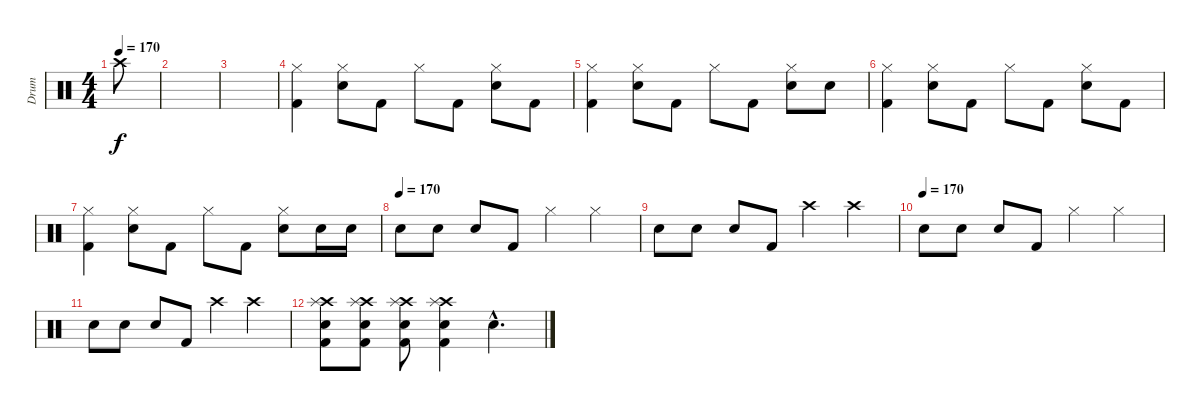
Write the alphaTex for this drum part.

\track ("Drum" "Drum") {instrument percussion}
\staff {score}
\articulation defaults
\ts (4 4)
\tempo 170
\clef neutral
\ks c "Crash high (hit)".8{dy f}
|
|
|
("Hi-Hat (closed)" "Kick (hit) 2").4 ("Hi-Hat (closed)" "Electric Snare (hit)").8 "Kick (hit) 2".8 "Hi-Hat (closed)".8 "Kick (hit) 2".8 ("Hi-Hat (closed)" "Electric Snare (hit)").8 "Kick (hit) 2".8 |
("Hi-Hat (closed)" "Kick (hit) 2").4 ("Hi-Hat (closed)" "Electric Snare (hit)").8 "Kick (hit) 2".8 "Hi-Hat (closed)".8 "Kick (hit) 2".8 ("Hi-Hat (closed)" "Electric Snare (hit)").8 "Electric Snare (hit)".8 |
("Hi-Hat (closed)" "Kick (hit) 2").4 ("Hi-Hat (closed)" "Electric Snare (hit)").8 "Kick (hit) 2".8 "Hi-Hat (closed)".8 "Kick (hit) 2".8 ("Hi-Hat (closed)" "Electric Snare (hit)").8 "Kick (hit) 2".8 |
("Hi-Hat (closed)" "Kick (hit) 2").4 ("Hi-Hat (closed)" "Electric Snare (hit)").8 "Kick (hit) 2".8 "Hi-Hat (closed)".8 "Kick (hit) 2".8 ("Hi-Hat (closed)" "Electric Snare (hit)").8 "Electric Snare (hit)".16 "Electric Snare (hit)".16 |
\tempo (170)
"Electric Snare (hit)".8 "Electric Snare (hit)".8 "Electric Snare (hit)".8 "Kick (hit) 2".8 "Hi-Hat (closed)".4 "Hi-Hat (closed)".4 |
"Electric Snare (hit)".8 "Electric Snare (hit)".8 "Electric Snare (hit)".8 "Kick (hit) 2".8 "Crash high (hit)".4 "Crash high (hit)".4 |
\tempo (170)
"Electric Snare (hit)".8 "Electric Snare (hit)".8 "Electric Snare (hit)".8 "Kick (hit) 2".8 "Hi-Hat (closed)".4 "Hi-Hat (closed)".4 |
"Electric Snare (hit)".8 "Electric Snare (hit)".8 "Electric Snare (hit)".8 "Kick (hit) 2".8 "Crash high (hit)".4 "Crash high (hit)".4 |
("Crash high (hit)" "Splash (hit)" "Electric Snare (hit)" "Kick (hit) 2").8 ("Crash high (hit)" "Splash (hit)" "Electric Snare (hit)" "Kick (hit) 2").8 ("Crash high (hit)" "Splash (hit)" "Electric Snare (hit)" "Kick (hit) 2").8 ("Crash high (hit)" "Splash (hit)" "Electric Snare (hit)" "Kick (hit) 2").4 "Electric Snare (hit)"{hac}.4{d}
